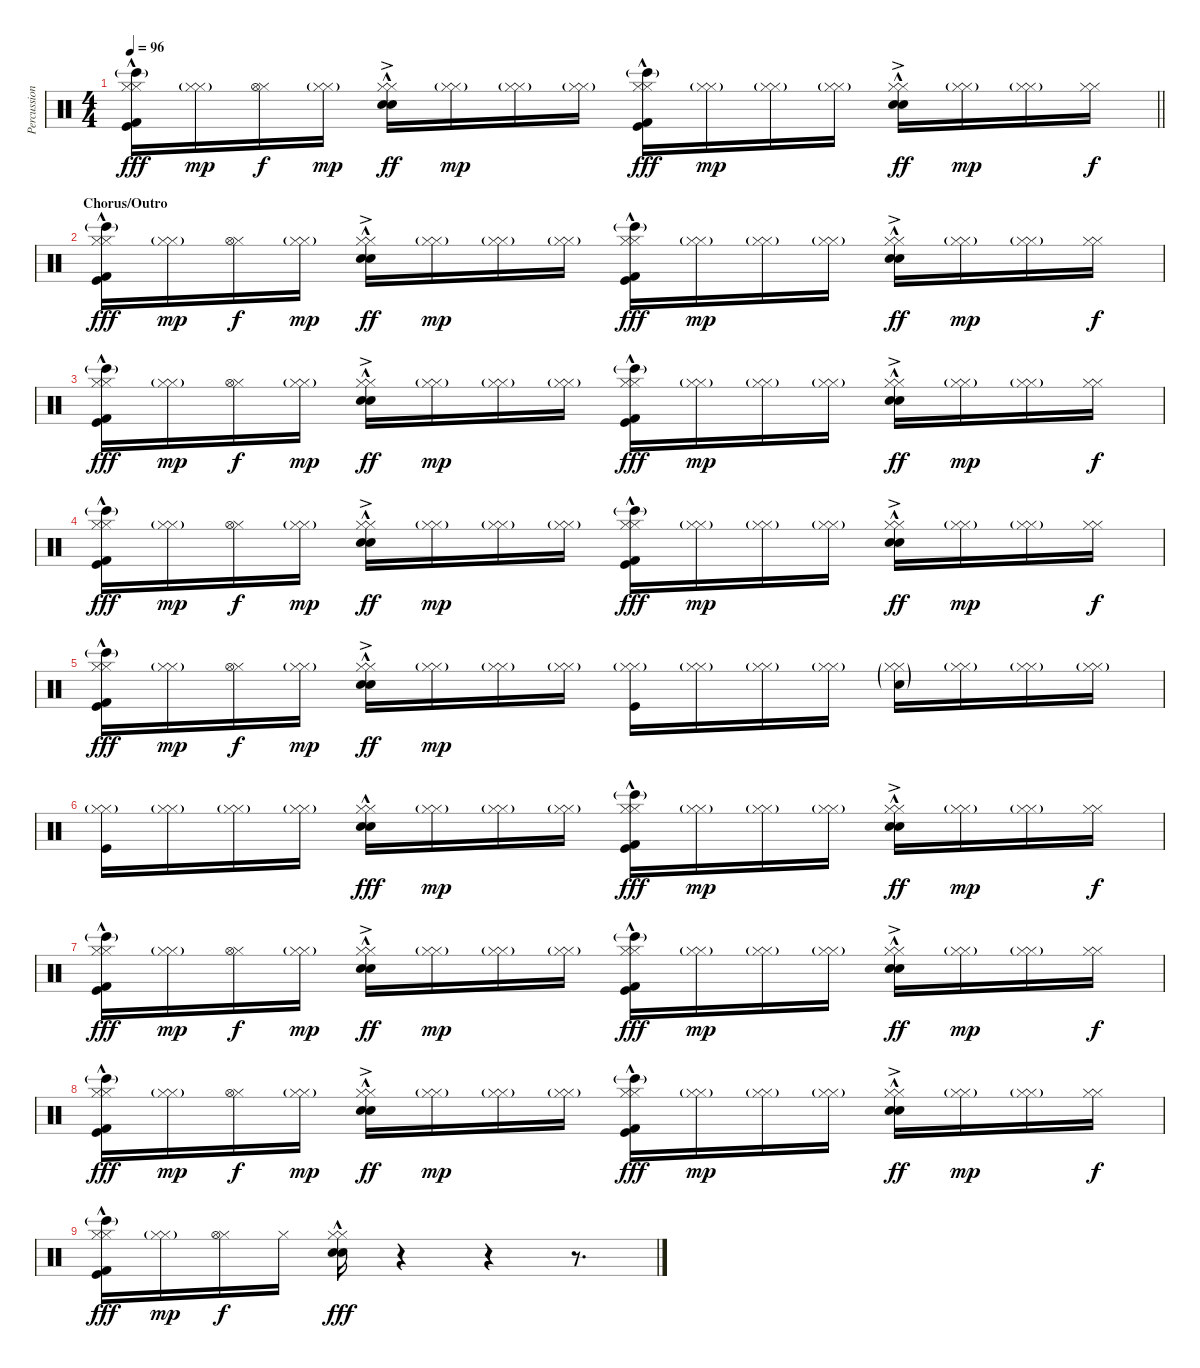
\track ("Percussion" "Percussion") {instrument percussion}
\staff {score}
\articulation defaults
\ts (4 4)
\tempo 96
\clef neutral
\barLineRight lightlight
\ks c
("Hi-Hat (closed)" "Hi-Hat (closed)" "Bongo High (hit)"{g} "Kick (hit) 2"{hac} "Kick (hit)"{hac}).16{dy fff} ("Hi-Hat (closed)" "Hi-Hat (closed)"{g}).16{dy mp} ("Hi-Hat (closed)" "Hi-Hat (open)").16{dy f} ("Hi-Hat (closed)" "Hi-Hat (closed)"{g}).16{dy mp} ("Hi-Hat (closed)" "Hi-Hat (closed)" "Hand Clap (hit)"{hac} "Snare (hit) 2"{ac}).16{dy ff} ("Hi-Hat (closed)" "Hi-Hat (closed)"{g}).16{dy mp} ("Hi-Hat (closed)" "Hi-Hat (closed)"{g}).16 ("Hi-Hat (closed)" "Hi-Hat (closed)"{g}).16 ("Hi-Hat (closed)" "Hi-Hat (closed)" "Bongo High (hit)"{g} "Kick (hit) 2"{hac} "Kick (hit)"{hac}).16{dy fff} ("Hi-Hat (closed)" "Hi-Hat (closed)"{g}).16{dy mp} ("Hi-Hat (closed)" "Hi-Hat (closed)"{g}).16 ("Hi-Hat (closed)" "Hi-Hat (closed)"{g}).16 ("Hi-Hat (closed)" "Hi-Hat (closed)" "Hand Clap (hit)"{hac} "Snare (hit) 2"{ac}).16{dy ff} ("Hi-Hat (closed)" "Hi-Hat (closed)"{g}).16{dy mp} ("Hi-Hat (closed)" "Hi-Hat (closed)"{g}).16 ("Hi-Hat (closed)" "Hi-Hat (closed)").16{dy f} |
\section ("" "Chorus/Outro")
("Hi-Hat (closed)" "Hi-Hat (closed)" "Bongo High (hit)"{g} "Kick (hit) 2"{hac} "Kick (hit)"{hac}).16{dy fff} ("Hi-Hat (closed)" "Hi-Hat (closed)"{g}).16{dy mp} ("Hi-Hat (closed)" "Hi-Hat (open)").16{dy f} ("Hi-Hat (closed)" "Hi-Hat (closed)"{g}).16{dy mp} ("Hi-Hat (closed)" "Hi-Hat (closed)" "Hand Clap (hit)"{hac} "Snare (hit) 2"{ac}).16{dy ff} ("Hi-Hat (closed)" "Hi-Hat (closed)"{g}).16{dy mp} ("Hi-Hat (closed)" "Hi-Hat (closed)"{g}).16 ("Hi-Hat (closed)" "Hi-Hat (closed)"{g}).16 ("Hi-Hat (closed)" "Hi-Hat (closed)" "Bongo High (hit)"{g} "Kick (hit) 2"{hac} "Kick (hit)"{hac}).16{dy fff} ("Hi-Hat (closed)" "Hi-Hat (closed)"{g}).16{dy mp} ("Hi-Hat (closed)" "Hi-Hat (closed)"{g}).16 ("Hi-Hat (closed)" "Hi-Hat (closed)"{g}).16 ("Hi-Hat (closed)" "Hi-Hat (closed)" "Hand Clap (hit)"{hac} "Snare (hit) 2"{ac}).16{dy ff} ("Hi-Hat (closed)" "Hi-Hat (closed)"{g}).16{dy mp} ("Hi-Hat (closed)" "Hi-Hat (closed)"{g}).16 ("Hi-Hat (closed)" "Hi-Hat (closed)").16{dy f} |
("Hi-Hat (closed)" "Hi-Hat (closed)" "Bongo High (hit)"{g} "Kick (hit) 2"{hac} "Kick (hit)"{hac}).16{dy fff} ("Hi-Hat (closed)" "Hi-Hat (closed)"{g}).16{dy mp} ("Hi-Hat (closed)" "Hi-Hat (open)").16{dy f} ("Hi-Hat (closed)" "Hi-Hat (closed)"{g}).16{dy mp} ("Hi-Hat (closed)" "Hi-Hat (closed)" "Hand Clap (hit)"{hac} "Snare (hit) 2"{ac}).16{dy ff} ("Hi-Hat (closed)" "Hi-Hat (closed)"{g}).16{dy mp} ("Hi-Hat (closed)" "Hi-Hat (closed)"{g}).16 ("Hi-Hat (closed)" "Hi-Hat (closed)"{g}).16 ("Hi-Hat (closed)" "Hi-Hat (closed)" "Bongo High (hit)"{g} "Kick (hit) 2"{hac} "Kick (hit)"{hac}).16{dy fff} ("Hi-Hat (closed)" "Hi-Hat (closed)"{g}).16{dy mp} ("Hi-Hat (closed)" "Hi-Hat (closed)"{g}).16 ("Hi-Hat (closed)" "Hi-Hat (closed)"{g}).16 ("Hi-Hat (closed)" "Hi-Hat (closed)" "Hand Clap (hit)"{hac} "Snare (hit) 2"{ac}).16{dy ff} ("Hi-Hat (closed)" "Hi-Hat (closed)"{g}).16{dy mp} ("Hi-Hat (closed)" "Hi-Hat (closed)"{g}).16 ("Hi-Hat (closed)" "Hi-Hat (closed)").16{dy f} |
("Hi-Hat (closed)" "Hi-Hat (closed)" "Bongo High (hit)"{g} "Kick (hit) 2"{hac} "Kick (hit)"{hac}).16{dy fff} ("Hi-Hat (closed)" "Hi-Hat (closed)"{g}).16{dy mp} ("Hi-Hat (closed)" "Hi-Hat (open)").16{dy f} ("Hi-Hat (closed)" "Hi-Hat (closed)"{g}).16{dy mp} ("Hi-Hat (closed)" "Hi-Hat (closed)" "Hand Clap (hit)"{hac} "Snare (hit) 2"{ac}).16{dy ff} ("Hi-Hat (closed)" "Hi-Hat (closed)"{g}).16{dy mp} ("Hi-Hat (closed)" "Hi-Hat (closed)"{g}).16 ("Hi-Hat (closed)" "Hi-Hat (closed)"{g}).16 ("Hi-Hat (closed)" "Hi-Hat (closed)" "Bongo High (hit)"{g} "Kick (hit) 2"{hac} "Kick (hit)"{hac}).16{dy fff} ("Hi-Hat (closed)" "Hi-Hat (closed)"{g}).16{dy mp} ("Hi-Hat (closed)" "Hi-Hat (closed)"{g}).16 ("Hi-Hat (closed)" "Hi-Hat (closed)"{g}).16 ("Hi-Hat (closed)" "Hi-Hat (closed)" "Hand Clap (hit)"{hac} "Snare (hit) 2"{ac}).16{dy ff} ("Hi-Hat (closed)" "Hi-Hat (closed)"{g}).16{dy mp} ("Hi-Hat (closed)" "Hi-Hat (closed)"{g}).16 ("Hi-Hat (closed)" "Hi-Hat (closed)").16{dy f} |
("Hi-Hat (closed)" "Hi-Hat (closed)" "Bongo High (hit)"{g} "Kick (hit) 2"{hac} "Kick (hit)"{hac}).16{dy fff} ("Hi-Hat (closed)" "Hi-Hat (closed)"{g}).16{dy mp} ("Hi-Hat (closed)" "Hi-Hat (open)").16{dy f} ("Hi-Hat (closed)" "Hi-Hat (closed)"{g}).16{dy mp} ("Hi-Hat (closed)" "Hi-Hat (closed)" "Hand Clap (hit)"{hac} "Snare (hit) 2"{ac}).16{dy ff} ("Hi-Hat (closed)" "Hi-Hat (closed)"{g}).16{dy mp} ("Hi-Hat (closed)" "Hi-Hat (closed)"{g}).16 ("Hi-Hat (closed)" "Hi-Hat (closed)"{g}).16 ("Hi-Hat (closed)" "Hi-Hat (closed)"{g} "Kick (hit)").16 ("Hi-Hat (closed)" "Hi-Hat (closed)"{g}).16 ("Hi-Hat (closed)" "Hi-Hat (closed)"{g}).16 ("Hi-Hat (closed)" "Hi-Hat (closed)"{g}).16 ("Hi-Hat (closed)" "Hi-Hat (closed)"{g} "Snare (hit) 2"{g}).16 ("Hi-Hat (closed)" "Hi-Hat (closed)"{g}).16 ("Hi-Hat (closed)" "Hi-Hat (closed)"{g}).16 ("Hi-Hat (closed)" "Hi-Hat (closed)"{g}).16 |
("Hi-Hat (closed)" "Hi-Hat (closed)"{g} "Kick (hit)").16 ("Hi-Hat (closed)" "Hi-Hat (closed)"{g}).16 ("Hi-Hat (closed)" "Hi-Hat (closed)"{g}).16 ("Hi-Hat (closed)" "Hi-Hat (closed)"{g}).16 ("Hi-Hat (closed)" "Hi-Hat (closed)" "Hand Clap (hit)"{hac} "Snare (hit) 2"{hac}).16{dy fff} ("Hi-Hat (closed)" "Hi-Hat (closed)"{g}).16{dy mp} ("Hi-Hat (closed)" "Hi-Hat (closed)"{g}).16 ("Hi-Hat (closed)" "Hi-Hat (closed)"{g}).16 ("Hi-Hat (closed)" "Hi-Hat (closed)" "Bongo High (hit)"{g} "Kick (hit) 2"{hac} "Kick (hit)"{hac}).16{dy fff} ("Hi-Hat (closed)" "Hi-Hat (closed)"{g}).16{dy mp} ("Hi-Hat (closed)" "Hi-Hat (closed)"{g}).16 ("Hi-Hat (closed)" "Hi-Hat (closed)"{g}).16 ("Hi-Hat (closed)" "Hi-Hat (closed)" "Hand Clap (hit)"{hac} "Snare (hit) 2"{ac}).16{dy ff} ("Hi-Hat (closed)" "Hi-Hat (closed)"{g}).16{dy mp} ("Hi-Hat (closed)" "Hi-Hat (closed)"{g}).16 ("Hi-Hat (closed)" "Hi-Hat (closed)").16{dy f} |
("Hi-Hat (closed)" "Hi-Hat (closed)" "Bongo High (hit)"{g} "Kick (hit) 2"{hac} "Kick (hit)"{hac}).16{dy fff} ("Hi-Hat (closed)" "Hi-Hat (closed)"{g}).16{dy mp} ("Hi-Hat (closed)" "Hi-Hat (open)").16{dy f} ("Hi-Hat (closed)" "Hi-Hat (closed)"{g}).16{dy mp} ("Hi-Hat (closed)" "Hi-Hat (closed)" "Hand Clap (hit)"{hac} "Snare (hit) 2"{ac}).16{dy ff} ("Hi-Hat (closed)" "Hi-Hat (closed)"{g}).16{dy mp} ("Hi-Hat (closed)" "Hi-Hat (closed)"{g}).16 ("Hi-Hat (closed)" "Hi-Hat (closed)"{g}).16 ("Hi-Hat (closed)" "Hi-Hat (closed)" "Bongo High (hit)"{g} "Kick (hit) 2"{hac} "Kick (hit)"{hac}).16{dy fff} ("Hi-Hat (closed)" "Hi-Hat (closed)"{g}).16{dy mp} ("Hi-Hat (closed)" "Hi-Hat (closed)"{g}).16 ("Hi-Hat (closed)" "Hi-Hat (closed)"{g}).16 ("Hi-Hat (closed)" "Hi-Hat (closed)" "Hand Clap (hit)"{hac} "Snare (hit) 2"{ac}).16{dy ff} ("Hi-Hat (closed)" "Hi-Hat (closed)"{g}).16{dy mp} ("Hi-Hat (closed)" "Hi-Hat (closed)"{g}).16 ("Hi-Hat (closed)" "Hi-Hat (closed)").16{dy f} |
("Hi-Hat (closed)" "Hi-Hat (closed)" "Bongo High (hit)"{g} "Kick (hit) 2"{hac} "Kick (hit)"{hac}).16{dy fff} ("Hi-Hat (closed)" "Hi-Hat (closed)"{g}).16{dy mp} ("Hi-Hat (closed)" "Hi-Hat (open)").16{dy f} ("Hi-Hat (closed)" "Hi-Hat (closed)"{g}).16{dy mp} ("Hi-Hat (closed)" "Hi-Hat (closed)" "Hand Clap (hit)"{hac} "Snare (hit) 2"{ac}).16{dy ff} ("Hi-Hat (closed)" "Hi-Hat (closed)"{g}).16{dy mp} ("Hi-Hat (closed)" "Hi-Hat (closed)"{g}).16 ("Hi-Hat (closed)" "Hi-Hat (closed)"{g}).16 ("Hi-Hat (closed)" "Hi-Hat (closed)" "Bongo High (hit)"{g} "Kick (hit) 2"{hac} "Kick (hit)"{hac}).16{dy fff} ("Hi-Hat (closed)" "Hi-Hat (closed)"{g}).16{dy mp} ("Hi-Hat (closed)" "Hi-Hat (closed)"{g}).16 ("Hi-Hat (closed)" "Hi-Hat (closed)"{g}).16 ("Hi-Hat (closed)" "Hi-Hat (closed)" "Hand Clap (hit)"{hac} "Snare (hit) 2"{ac}).16{dy ff} ("Hi-Hat (closed)" "Hi-Hat (closed)"{g}).16{dy mp} ("Hi-Hat (closed)" "Hi-Hat (closed)"{g}).16 ("Hi-Hat (closed)" "Hi-Hat (closed)").16{dy f} |
("Hi-Hat (closed)" "Hi-Hat (closed)" "Bongo High (hit)"{g} "Kick (hit) 2"{hac} "Kick (hit)"{hac}).16{dy fff} ("Hi-Hat (closed)" "Hi-Hat (closed)"{g}).16{dy mp} ("Hi-Hat (closed)" "Hi-Hat (open)").16{dy f} "Hi-Hat (closed)".16 ("Hi-Hat (closed)" "Hi-Hat (closed)"{hac} "Hand Clap (hit)"{hac} "Snare (hit) 2"{hac}).16{dy fff} r.4 r.4 r.8{d}
